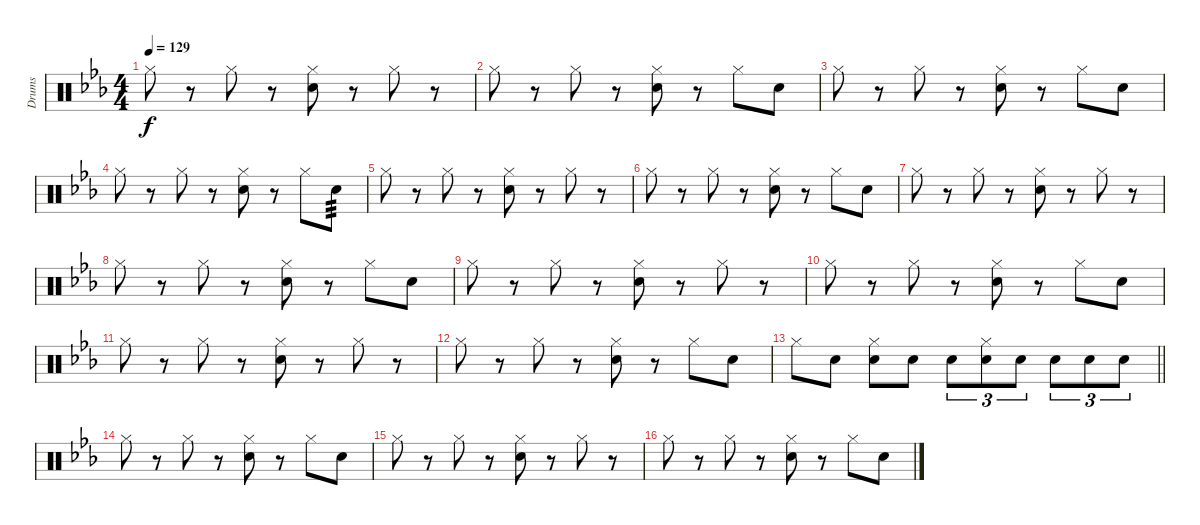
\track ("Drums" "Drums") {instrument percussion}
\staff {score}
\articulation defaults
\ts (4 4)
\tempo 129
\clef neutral
\ks eb "Hi-Hat (closed)".8{dy f}
r.8 "Hi-Hat (closed)".8 r.8 ("Hi-Hat (closed)" "Snare (hit) 2").8 r.8 "Hi-Hat (closed)".8 r.8 |
"Hi-Hat (closed)".8 r.8 "Hi-Hat (closed)".8 r.8 ("Hi-Hat (closed)" "Snare (hit) 2").8 r.8 "Hi-Hat (closed)".8 "Snare (hit) 2".8 |
"Hi-Hat (closed)".8 r.8 "Hi-Hat (closed)".8 r.8 ("Hi-Hat (closed)" "Snare (hit) 2").8 r.8 "Hi-Hat (closed)".8 "Snare (hit) 2".8 |
"Hi-Hat (closed)".8 r.8 "Hi-Hat (closed)".8 r.8 ("Hi-Hat (closed)" "Snare (hit) 2").8 r.8 "Hi-Hat (closed)".8 "Snare (hit) 2".8{tp 3} |
"Hi-Hat (closed)".8 r.8 "Hi-Hat (closed)".8 r.8 ("Hi-Hat (closed)" "Snare (hit) 2").8 r.8 "Hi-Hat (closed)".8 r.8 |
"Hi-Hat (closed)".8 r.8 "Hi-Hat (closed)".8 r.8 ("Hi-Hat (closed)" "Snare (hit) 2").8 r.8 "Hi-Hat (closed)".8 "Snare (hit) 2".8 |
"Hi-Hat (closed)".8 r.8 "Hi-Hat (closed)".8 r.8 ("Hi-Hat (closed)" "Snare (hit) 2").8 r.8 "Hi-Hat (closed)".8 r.8 |
"Hi-Hat (closed)".8 r.8 "Hi-Hat (closed)".8 r.8 ("Hi-Hat (closed)" "Snare (hit) 2").8 r.8 "Hi-Hat (closed)".8 "Snare (hit) 2".8 |
"Hi-Hat (closed)".8 r.8 "Hi-Hat (closed)".8 r.8 ("Hi-Hat (closed)" "Snare (hit) 2").8 r.8 "Hi-Hat (closed)".8 r.8 |
"Hi-Hat (closed)".8 r.8 "Hi-Hat (closed)".8 r.8 ("Hi-Hat (closed)" "Snare (hit) 2").8 r.8 "Hi-Hat (closed)".8 "Snare (hit) 2".8 |
"Hi-Hat (closed)".8 r.8 "Hi-Hat (closed)".8 r.8 ("Hi-Hat (closed)" "Snare (hit) 2").8 r.8 "Hi-Hat (closed)".8 r.8 |
"Hi-Hat (closed)".8 r.8 "Hi-Hat (closed)".8 r.8 ("Hi-Hat (closed)" "Snare (hit) 2").8 r.8 "Hi-Hat (closed)".8 "Snare (hit) 2".8 |
\barLineRight lightlight "Hi-Hat (closed)".8 "Snare (hit) 2".8
("Hi-Hat (closed)" "Snare (hit) 2").8 "Snare (hit) 2".8 "Snare (hit) 2".8{tu (3 2)} ("Hi-Hat (closed)" "Snare (hit) 2").8{tu (3 2)} "Snare (hit) 2".8{tu (3 2)} "Snare (hit) 2".8{tu (3 2)} "Snare (hit) 2".8{tu (3 2)} "Snare (hit) 2".8{tu (3 2)} |
"Hi-Hat (closed)".8 r.8 "Hi-Hat (closed)".8 r.8 ("Hi-Hat (closed)" "Snare (hit) 2").8 r.8 "Hi-Hat (closed)".8 "Snare (hit) 2".8 |
"Hi-Hat (closed)".8 r.8 "Hi-Hat (closed)".8 r.8 ("Hi-Hat (closed)" "Snare (hit) 2").8 r.8 "Hi-Hat (closed)".8 r.8 |
"Hi-Hat (closed)".8 r.8 "Hi-Hat (closed)".8 r.8 ("Hi-Hat (closed)" "Snare (hit) 2").8 r.8 "Hi-Hat (closed)".8 "Snare (hit) 2".8
